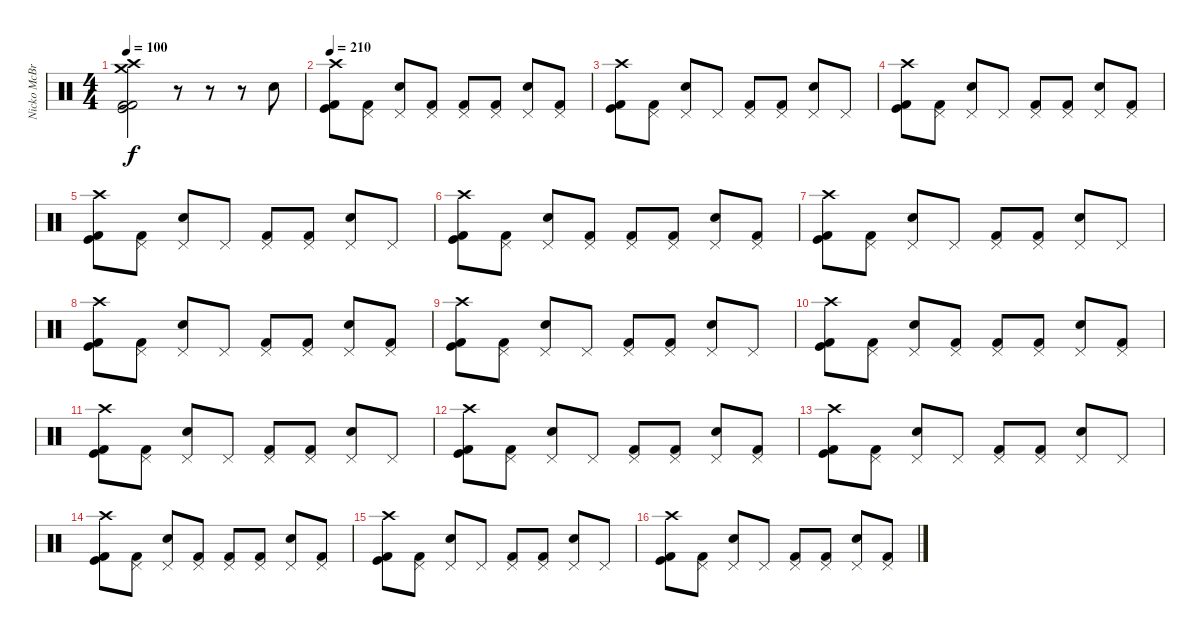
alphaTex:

\track ("Nicko McBrain" "Nicko McBr") {instrument percussion}
\staff {score}
\articulation defaults
\ts (4 4)
\tempo 100
\clef neutral
\ks c
("Crash medium (hit)" "Crash high (hit)" "Kick (hit)" "Kick (hit) 2" "Kick (hit) 2").2{dy f} r.8 r.8 r.8 "Snare (hit) 2".8 |
\tempo 210
("Crash high (hit)" "Kick (hit)" "Kick (hit) 2").8 ("Pedal Hi-Hat (hit)" "Kick (hit) 2").8 ("Pedal Hi-Hat (hit)" "Snare (hit) 2").8 ("Pedal Hi-Hat (hit)" "Kick (hit) 2").8 ("Pedal Hi-Hat (hit)" "Kick (hit) 2").8 ("Pedal Hi-Hat (hit)" "Kick (hit) 2").8 ("Pedal Hi-Hat (hit)" "Snare (hit) 2").8 ("Pedal Hi-Hat (hit)" "Kick (hit) 2").8 |
("Crash high (hit)" "Kick (hit)" "Kick (hit) 2").8 ("Pedal Hi-Hat (hit)" "Kick (hit) 2").8 ("Pedal Hi-Hat (hit)" "Snare (hit) 2").8 "Pedal Hi-Hat (hit)".8 ("Pedal Hi-Hat (hit)" "Kick (hit) 2").8 ("Pedal Hi-Hat (hit)" "Kick (hit) 2").8 ("Pedal Hi-Hat (hit)" "Snare (hit) 2").8 "Pedal Hi-Hat (hit)".8 |
("Crash high (hit)" "Kick (hit)" "Kick (hit) 2").8 ("Pedal Hi-Hat (hit)" "Kick (hit) 2").8 ("Pedal Hi-Hat (hit)" "Snare (hit) 2").8 "Pedal Hi-Hat (hit)".8 ("Pedal Hi-Hat (hit)" "Kick (hit) 2").8 ("Pedal Hi-Hat (hit)" "Kick (hit) 2").8 ("Pedal Hi-Hat (hit)" "Snare (hit) 2").8 ("Pedal Hi-Hat (hit)" "Kick (hit) 2").8 |
("Crash high (hit)" "Kick (hit)" "Kick (hit) 2").8 ("Pedal Hi-Hat (hit)" "Kick (hit) 2").8 ("Pedal Hi-Hat (hit)" "Snare (hit) 2").8 "Pedal Hi-Hat (hit)".8 ("Pedal Hi-Hat (hit)" "Kick (hit) 2").8 ("Pedal Hi-Hat (hit)" "Kick (hit) 2").8 ("Pedal Hi-Hat (hit)" "Snare (hit) 2").8 "Pedal Hi-Hat (hit)".8 |
("Crash high (hit)" "Kick (hit)" "Kick (hit) 2").8 ("Pedal Hi-Hat (hit)" "Kick (hit) 2").8 ("Pedal Hi-Hat (hit)" "Snare (hit) 2").8 ("Pedal Hi-Hat (hit)" "Kick (hit) 2").8 ("Pedal Hi-Hat (hit)" "Kick (hit) 2").8 ("Pedal Hi-Hat (hit)" "Kick (hit) 2").8 ("Pedal Hi-Hat (hit)" "Snare (hit) 2").8 ("Pedal Hi-Hat (hit)" "Kick (hit) 2").8 |
("Crash high (hit)" "Kick (hit)" "Kick (hit) 2").8 ("Pedal Hi-Hat (hit)" "Kick (hit) 2").8 ("Pedal Hi-Hat (hit)" "Snare (hit) 2").8 "Pedal Hi-Hat (hit)".8 ("Pedal Hi-Hat (hit)" "Kick (hit) 2").8 ("Pedal Hi-Hat (hit)" "Kick (hit) 2").8 ("Pedal Hi-Hat (hit)" "Snare (hit) 2").8 "Pedal Hi-Hat (hit)".8 |
("Crash high (hit)" "Kick (hit)" "Kick (hit) 2").8 ("Pedal Hi-Hat (hit)" "Kick (hit) 2").8 ("Pedal Hi-Hat (hit)" "Snare (hit) 2").8 "Pedal Hi-Hat (hit)".8 ("Pedal Hi-Hat (hit)" "Kick (hit) 2").8 ("Pedal Hi-Hat (hit)" "Kick (hit) 2").8 ("Pedal Hi-Hat (hit)" "Snare (hit) 2").8 ("Pedal Hi-Hat (hit)" "Kick (hit) 2").8 |
("Crash high (hit)" "Kick (hit)" "Kick (hit) 2").8 ("Pedal Hi-Hat (hit)" "Kick (hit) 2").8 ("Pedal Hi-Hat (hit)" "Snare (hit) 2").8 "Pedal Hi-Hat (hit)".8 ("Pedal Hi-Hat (hit)" "Kick (hit) 2").8 ("Pedal Hi-Hat (hit)" "Kick (hit) 2").8 ("Pedal Hi-Hat (hit)" "Snare (hit) 2").8 "Pedal Hi-Hat (hit)".8 |
("Crash high (hit)" "Kick (hit)" "Kick (hit) 2").8 ("Pedal Hi-Hat (hit)" "Kick (hit) 2").8 ("Pedal Hi-Hat (hit)" "Snare (hit) 2").8 ("Pedal Hi-Hat (hit)" "Kick (hit) 2").8 ("Pedal Hi-Hat (hit)" "Kick (hit) 2").8 ("Pedal Hi-Hat (hit)" "Kick (hit) 2").8 ("Pedal Hi-Hat (hit)" "Snare (hit) 2").8 ("Pedal Hi-Hat (hit)" "Kick (hit) 2").8 |
("Crash high (hit)" "Kick (hit)" "Kick (hit) 2").8 ("Pedal Hi-Hat (hit)" "Kick (hit) 2").8 ("Pedal Hi-Hat (hit)" "Snare (hit) 2").8 "Pedal Hi-Hat (hit)".8 ("Pedal Hi-Hat (hit)" "Kick (hit) 2").8 ("Pedal Hi-Hat (hit)" "Kick (hit) 2").8 ("Pedal Hi-Hat (hit)" "Snare (hit) 2").8 "Pedal Hi-Hat (hit)".8 |
("Crash high (hit)" "Kick (hit)" "Kick (hit) 2").8 ("Pedal Hi-Hat (hit)" "Kick (hit) 2").8 ("Pedal Hi-Hat (hit)" "Snare (hit) 2").8 "Pedal Hi-Hat (hit)".8 ("Pedal Hi-Hat (hit)" "Kick (hit) 2").8 ("Pedal Hi-Hat (hit)" "Kick (hit) 2").8 ("Pedal Hi-Hat (hit)" "Snare (hit) 2").8 ("Pedal Hi-Hat (hit)" "Kick (hit) 2").8 |
("Crash high (hit)" "Kick (hit)" "Kick (hit) 2").8 ("Pedal Hi-Hat (hit)" "Kick (hit) 2").8 ("Pedal Hi-Hat (hit)" "Snare (hit) 2").8 "Pedal Hi-Hat (hit)".8 ("Pedal Hi-Hat (hit)" "Kick (hit) 2").8 ("Pedal Hi-Hat (hit)" "Kick (hit) 2").8 ("Pedal Hi-Hat (hit)" "Snare (hit) 2").8 "Pedal Hi-Hat (hit)".8 |
("Crash high (hit)" "Kick (hit)" "Kick (hit) 2").8 ("Pedal Hi-Hat (hit)" "Kick (hit) 2").8 ("Pedal Hi-Hat (hit)" "Snare (hit) 2").8 ("Pedal Hi-Hat (hit)" "Kick (hit) 2").8 ("Pedal Hi-Hat (hit)" "Kick (hit) 2").8 ("Pedal Hi-Hat (hit)" "Kick (hit) 2").8 ("Pedal Hi-Hat (hit)" "Snare (hit) 2").8 ("Pedal Hi-Hat (hit)" "Kick (hit) 2").8 |
("Crash high (hit)" "Kick (hit)" "Kick (hit) 2").8 ("Pedal Hi-Hat (hit)" "Kick (hit) 2").8 ("Pedal Hi-Hat (hit)" "Snare (hit) 2").8 "Pedal Hi-Hat (hit)".8 ("Pedal Hi-Hat (hit)" "Kick (hit) 2").8 ("Pedal Hi-Hat (hit)" "Kick (hit) 2").8 ("Pedal Hi-Hat (hit)" "Snare (hit) 2").8 "Pedal Hi-Hat (hit)".8 |
("Crash high (hit)" "Kick (hit)" "Kick (hit) 2").8 ("Pedal Hi-Hat (hit)" "Kick (hit) 2").8 ("Pedal Hi-Hat (hit)" "Snare (hit) 2").8 "Pedal Hi-Hat (hit)".8 ("Pedal Hi-Hat (hit)" "Kick (hit) 2").8 ("Pedal Hi-Hat (hit)" "Kick (hit) 2").8 ("Pedal Hi-Hat (hit)" "Snare (hit) 2").8 ("Pedal Hi-Hat (hit)" "Kick (hit) 2").8
